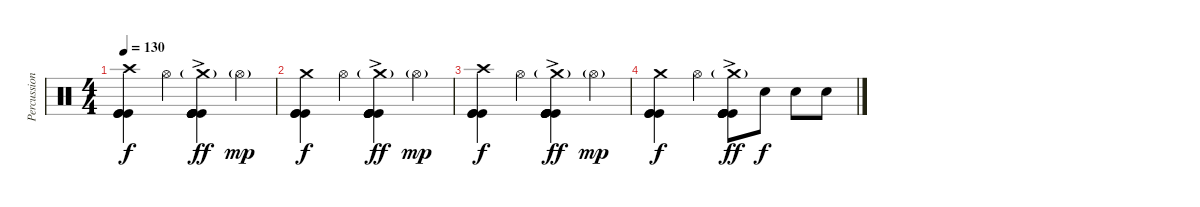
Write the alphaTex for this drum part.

\track ("Percussion" "Percussion") {instrument percussion}
\staff {score}
\articulation defaults
\ts (4 4)
\tempo 130
\clef neutral
\ks c
("Crash high (hit)" "Kick (hit)" "Kick (hit)" "Kick (hit)").4{dy f} "Hi-Hat (open)".4 ("Crash medium (hit)"{g} "Kick (hit)"{ac} "Kick (hit)"{ac} "Kick (hit)"{ac} "Kick (hit)"{ac} "Kick (hit)"{ac}).4{dy ff} "Hi-Hat (open)"{g}.4{dy mp} |
("Crash medium (hit)" "Kick (hit)" "Kick (hit)" "Kick (hit)").4{dy f} "Hi-Hat (open)".4 ("Crash medium (hit)"{g} "Kick (hit)"{ac} "Kick (hit)"{ac} "Kick (hit)"{ac} "Kick (hit)"{ac} "Kick (hit)"{ac}).4{dy ff} "Hi-Hat (open)"{g}.4{dy mp} |
("Crash high (hit)" "Kick (hit)" "Kick (hit)" "Kick (hit)").4{dy f} "Hi-Hat (open)".4 ("Crash medium (hit)"{g} "Kick (hit)"{ac} "Kick (hit)"{ac} "Kick (hit)"{ac} "Kick (hit)"{ac} "Kick (hit)"{ac}).4{dy ff} "Hi-Hat (open)"{g}.4{dy mp} |
("Crash medium (hit)" "Kick (hit)" "Kick (hit)" "Kick (hit)").4{dy f} "Hi-Hat (open)".4 ("Crash medium (hit)"{g} "Kick (hit)"{ac} "Kick (hit)"{ac} "Kick (hit)"{ac} "Kick (hit)"{ac} "Kick (hit)"{ac}).8{dy ff} "Snare (hit) 2".8{dy f} "Snare (hit) 2".8 "Snare (hit) 2".8
